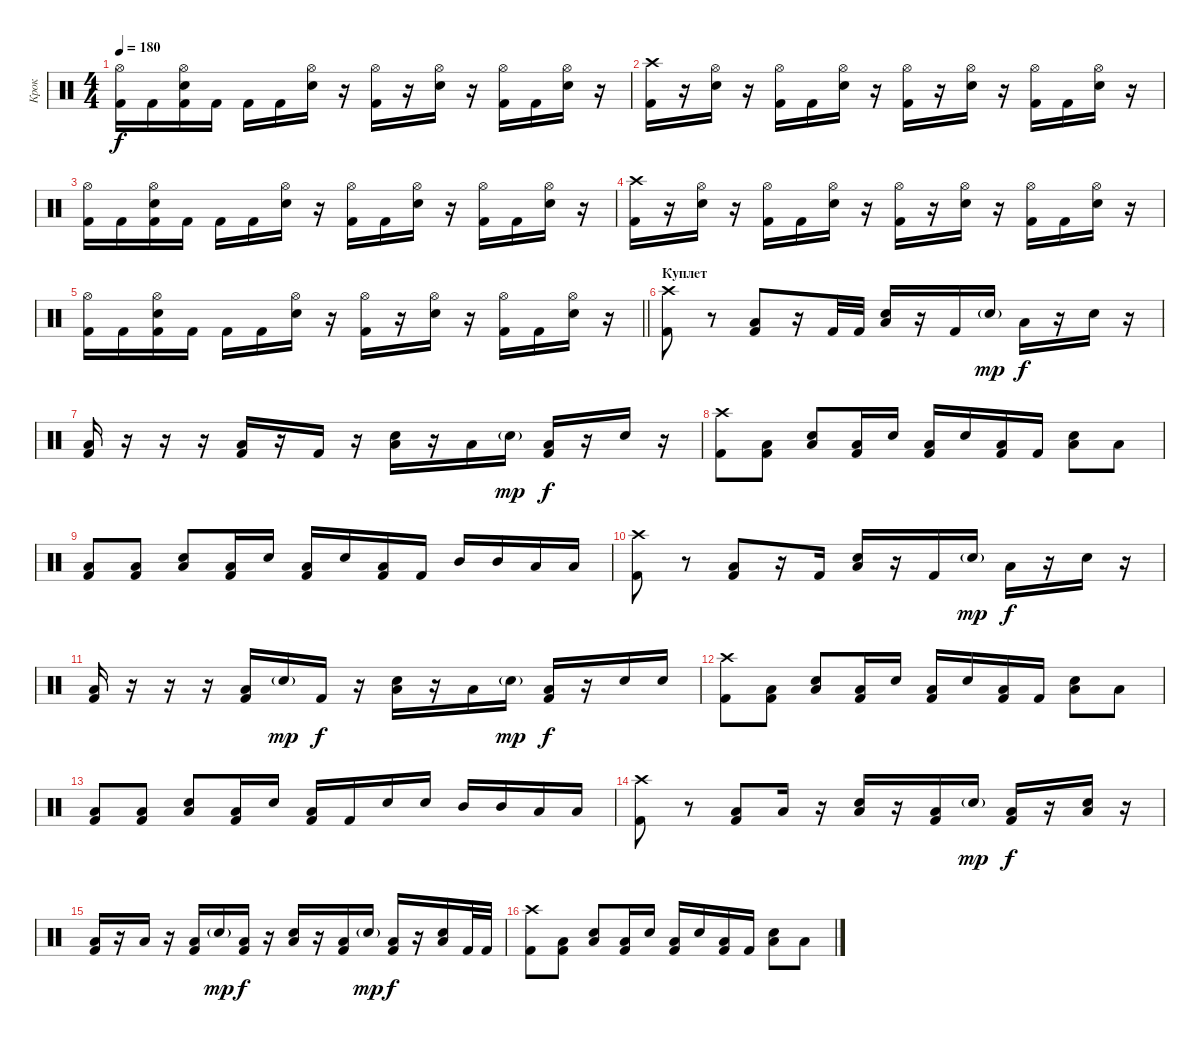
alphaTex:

\track ("Крок" "Крок") {instrument percussion}
\staff {score}
\articulation defaults
\ts (4 4)
\tempo 180
\clef neutral
\ks c
("Kick (hit) 2" "Hi-Hat (open)").16{dy f} "Kick (hit) 2".16 ("Kick (hit) 2" "Electric Snare (hit)" "Hi-Hat (open)").16 "Kick (hit) 2".16 "Kick (hit) 2".16 "Kick (hit) 2".16 ("Electric Snare (hit)" "Hi-Hat (open)").16 r.16 ("Kick (hit) 2" "Hi-Hat (open)").16 r.16 ("Electric Snare (hit)" "Hi-Hat (open)").16 r.16 ("Kick (hit) 2" "Hi-Hat (open)").16 "Kick (hit) 2".16 ("Electric Snare (hit)" "Hi-Hat (open)").16 r.16 |
("Kick (hit) 2" "Crash high (hit)").16 r.16 ("Electric Snare (hit)" "Hi-Hat (open)").16 r.16 ("Kick (hit) 2" "Hi-Hat (open)").16 "Kick (hit) 2".16 ("Electric Snare (hit)" "Hi-Hat (open)").16 r.16 ("Kick (hit) 2" "Hi-Hat (open)").16 r.16 ("Electric Snare (hit)" "Hi-Hat (open)").16 r.16 ("Kick (hit) 2" "Hi-Hat (open)").16 "Kick (hit) 2".16 ("Electric Snare (hit)" "Hi-Hat (open)").16 r.16 |
("Kick (hit) 2" "Hi-Hat (open)").16 "Kick (hit) 2".16 ("Kick (hit) 2" "Electric Snare (hit)" "Hi-Hat (open)").16 "Kick (hit) 2".16 "Kick (hit) 2".16 "Kick (hit) 2".16 ("Electric Snare (hit)" "Hi-Hat (open)").16 r.16 ("Kick (hit) 2" "Hi-Hat (open)").16 "Kick (hit) 2".16 ("Electric Snare (hit)" "Hi-Hat (open)").16 r.16 ("Kick (hit) 2" "Hi-Hat (open)").16 "Kick (hit) 2".16 ("Electric Snare (hit)" "Hi-Hat (open)").16 r.16 |
("Kick (hit) 2" "Crash high (hit)").16 r.16 ("Electric Snare (hit)" "Hi-Hat (open)").16 r.16 ("Kick (hit) 2" "Hi-Hat (open)").16 "Kick (hit) 2".16 ("Electric Snare (hit)" "Hi-Hat (open)").16 r.16 ("Kick (hit) 2" "Hi-Hat (open)").16 r.16 ("Electric Snare (hit)" "Hi-Hat (open)").16 r.16 ("Kick (hit) 2" "Hi-Hat (open)").16 "Kick (hit) 2".16 ("Electric Snare (hit)" "Hi-Hat (open)").16 r.16 |
\barLineRight lightlight
("Kick (hit) 2" "Hi-Hat (open)").16 "Kick (hit) 2".16 ("Kick (hit) 2" "Electric Snare (hit)" "Hi-Hat (open)").16 "Kick (hit) 2".16 "Kick (hit) 2".16 "Kick (hit) 2".16 ("Electric Snare (hit)" "Hi-Hat (open)").16 r.16 ("Kick (hit) 2" "Hi-Hat (open)").16 r.16 ("Electric Snare (hit)" "Hi-Hat (open)").16 r.16 ("Kick (hit) 2" "Hi-Hat (open)").16 "Kick (hit) 2".16 ("Electric Snare (hit)" "Hi-Hat (open)").16 r.16 |
\section ("" "Куплет")
("Crash high (hit)" "Kick (hit) 2").8 r.8 ("Kick (hit) 2" "Low Floor Tom (hit)").8 r.16 "Kick (hit) 2".32 "Kick (hit) 2".32 ("Electric Snare (hit)" "Low Floor Tom (hit)").16 r.16 "Kick (hit) 2".16 "Electric Snare (hit)"{g}.16{dy mp} "Low Floor Tom (hit)".16{dy f} r.16 "Electric Snare (hit)".16 r.16 |
("Kick (hit) 2" "Low Floor Tom (hit)").16 r.16 r.16 r.16 ("Kick (hit) 2" "Low Floor Tom (hit)").16 r.16 "Kick (hit) 2".16 r.16 ("Electric Snare (hit)" "Low Tom (hit)").16 r.16 "Low Tom (hit)".16 "Electric Snare (hit)"{g}.16{dy mp} ("Kick (hit) 2" "Low Floor Tom (hit)").16{dy f} r.16 "Electric Snare (hit)".16 r.16 |
("Kick (hit) 2" "Crash high (hit)").8 ("Kick (hit) 2" "Low Floor Tom (hit)").8 ("Electric Snare (hit)" "Low Floor Tom (hit)").8 ("Kick (hit) 2" "Low Floor Tom (hit)").16 "Electric Snare (hit)".16 ("Kick (hit) 2" "Low Floor Tom (hit)").16 "Electric Snare (hit)".16 ("Kick (hit) 2" "Low Floor Tom (hit)").16 "Kick (hit) 2".16 ("Electric Snare (hit)" "Low Floor Tom (hit)").8 "Low Floor Tom (hit)".8 |
("Kick (hit) 2" "Low Tom (hit)").8 ("Kick (hit) 2" "Low Tom (hit)").8 ("Electric Snare (hit)" "Low Tom (hit)").8 ("Kick (hit) 2" "Low Tom (hit)").16 "Electric Snare (hit)".16 ("Kick (hit) 2" "Low Tom (hit)").16 "Electric Snare (hit)".16 ("Kick (hit) 2" "Low Tom (hit)").16 "Kick (hit) 2".16 "Mid Tom (hit)".16 "Mid Tom (hit)".16 "Low Tom (hit)".16 "Low Tom (hit)".16 |
("Crash high (hit)" "Kick (hit) 2").8 r.8 ("Kick (hit) 2" "Low Floor Tom (hit)").8 r.16 "Kick (hit) 2".16 ("Electric Snare (hit)" "Low Floor Tom (hit)").16 r.16 "Kick (hit) 2".16 "Electric Snare (hit)"{g}.16{dy mp} "Low Floor Tom (hit)".16{dy f} r.16 "Electric Snare (hit)".16 r.16 |
("Kick (hit) 2" "Low Floor Tom (hit)").16 r.16 r.16 r.16 ("Kick (hit) 2" "Low Floor Tom (hit)").16 "Electric Snare (hit)"{g}.16{dy mp} "Kick (hit) 2".16{dy f} r.16 ("Electric Snare (hit)" "Low Tom (hit)").16 r.16 "Low Tom (hit)".16 "Electric Snare (hit)"{g}.16{dy mp} ("Kick (hit) 2" "Low Floor Tom (hit)").16{dy f} r.16 "Electric Snare (hit)".16 "Electric Snare (hit)".16 |
("Kick (hit) 2" "Crash high (hit)").8 ("Kick (hit) 2" "Low Floor Tom (hit)").8 ("Electric Snare (hit)" "Low Floor Tom (hit)").8 ("Kick (hit) 2" "Low Floor Tom (hit)").16 "Electric Snare (hit)".16 ("Kick (hit) 2" "Low Floor Tom (hit)").16 "Electric Snare (hit)".16 ("Kick (hit) 2" "Low Floor Tom (hit)").16 "Kick (hit) 2".16 ("Electric Snare (hit)" "Low Floor Tom (hit)").8 "Low Floor Tom (hit)".8 |
("Kick (hit) 2" "Low Tom (hit)").8 ("Kick (hit) 2" "Low Tom (hit)").8 ("Electric Snare (hit)" "Low Tom (hit)").8 ("Kick (hit) 2" "Low Tom (hit)").16 "Electric Snare (hit)".16 ("Kick (hit) 2" "Low Tom (hit)").16 "Kick (hit) 2".16 "Electric Snare (hit)".16 "Electric Snare (hit)".16 "Mid Tom (hit)".16 "Mid Tom (hit)".16 "Low Tom (hit)".16 "Low Tom (hit)".16 |
("Crash high (hit)" "Kick (hit) 2").8 r.8 ("Kick (hit) 2" "Low Floor Tom (hit)").8 "Low Floor Tom (hit)".16 r.16 ("Electric Snare (hit)" "Low Floor Tom (hit)").16 r.16 ("Kick (hit) 2" "Low Floor Tom (hit)").16 "Electric Snare (hit)"{g}.16{dy mp} ("Kick (hit) 2" "Low Floor Tom (hit)").16{dy f} r.16 ("Electric Snare (hit)" "Low Floor Tom (hit)").16 r.16 |
("Kick (hit) 2" "Low Floor Tom (hit)").16 r.16 "Low Floor Tom (hit)".16 r.16 ("Kick (hit) 2" "Low Floor Tom (hit)").16 "Electric Snare (hit)"{g}.16{dy mp} ("Kick (hit) 2" "Low Floor Tom (hit)").16{dy f} r.16 ("Electric Snare (hit)" "Low Floor Tom (hit)").16 r.16 ("Kick (hit) 2" "Low Floor Tom (hit)").16 "Electric Snare (hit)"{g}.16{dy mp} ("Kick (hit) 2" "Low Floor Tom (hit)").16{dy f} r.16 ("Electric Snare (hit)" "Low Floor Tom (hit)").16 "Kick (hit) 2".32 "Kick (hit) 2".32 |
("Kick (hit) 2" "Crash high (hit)").8 ("Kick (hit) 2" "Low Floor Tom (hit)").8 ("Electric Snare (hit)" "Low Floor Tom (hit)").8 ("Kick (hit) 2" "Low Floor Tom (hit)").16 "Electric Snare (hit)".16 ("Kick (hit) 2" "Low Floor Tom (hit)").16 "Electric Snare (hit)".16 ("Kick (hit) 2" "Low Floor Tom (hit)").16 "Kick (hit) 2".16 ("Electric Snare (hit)" "Low Floor Tom (hit)").8 "Low Floor Tom (hit)".8
